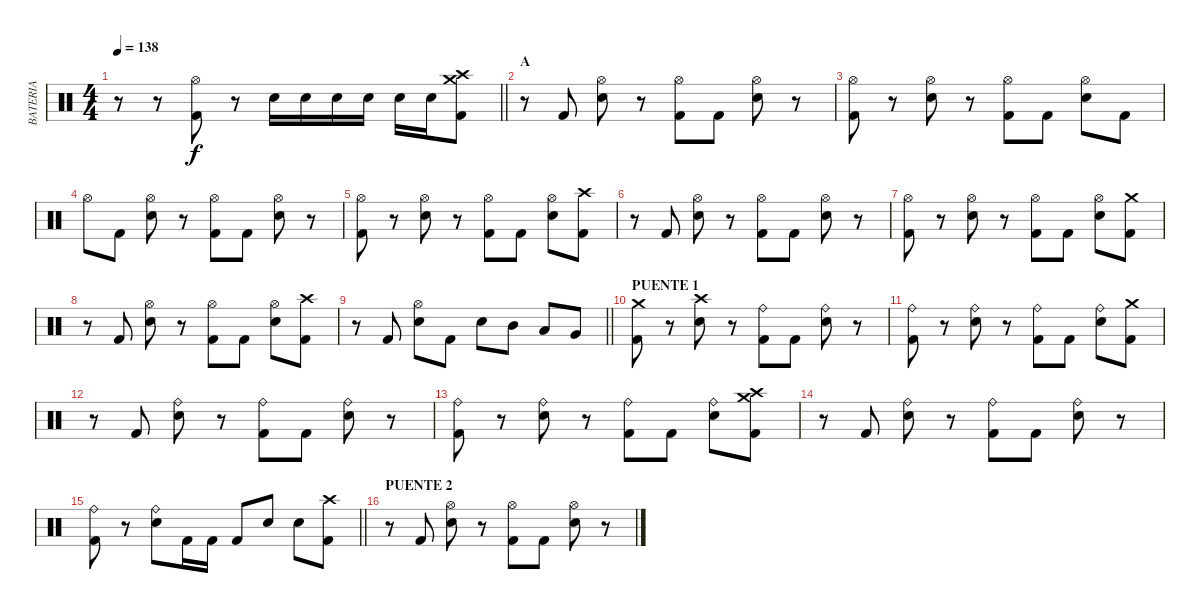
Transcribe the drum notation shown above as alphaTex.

\track ("BATERIA" "BATERIA") {instrument percussion}
\staff {score}
\articulation defaults
\ts (4 4)
\tempo 138
\clef neutral
\barLineRight lightlight
\ks c
r.8{dy f} r.8 ("Kick (hit) 2" "Hi-Hat (open)").8 r.8 "Electric Snare (hit)".16 "Electric Snare (hit)".16 "Electric Snare (hit)".16 "Electric Snare (hit)".16 "Electric Snare (hit)".16 "Electric Snare (hit)".16 ("Kick (hit) 2" "Crash medium (hit)" "Crash high (hit)").8 |
\section ("" "A")
r.8 "Kick (hit) 2".8 ("Electric Snare (hit)" "Hi-Hat (open)").8 r.8 ("Kick (hit) 2" "Hi-Hat (open)").8 "Kick (hit) 2".8 ("Electric Snare (hit)" "Hi-Hat (open)").8 r.8 |
("Kick (hit) 2" "Hi-Hat (open)").8 r.8 ("Electric Snare (hit)" "Hi-Hat (open)").8 r.8 ("Kick (hit) 2" "Hi-Hat (open)").8 "Kick (hit) 2".8 ("Electric Snare (hit)" "Hi-Hat (open)").8 "Kick (hit) 2".8 |
"Hi-Hat (open)".8 "Kick (hit) 2".8 ("Electric Snare (hit)" "Hi-Hat (open)").8 r.8 ("Kick (hit) 2" "Hi-Hat (open)").8 "Kick (hit) 2".8 ("Electric Snare (hit)" "Hi-Hat (open)").8 r.8 |
("Kick (hit) 2" "Hi-Hat (open)").8 r.8 ("Electric Snare (hit)" "Hi-Hat (open)").8 r.8 ("Kick (hit) 2" "Hi-Hat (open)").8 "Kick (hit) 2".8 ("Electric Snare (hit)" "Hi-Hat (open)").8 ("Kick (hit) 2" "Crash high (hit)").8 |
r.8 "Kick (hit) 2".8 ("Electric Snare (hit)" "Hi-Hat (open)").8 r.8 ("Kick (hit) 2" "Hi-Hat (open)").8 "Kick (hit) 2".8 ("Electric Snare (hit)" "Hi-Hat (open)").8 r.8 |
("Kick (hit) 2" "Hi-Hat (open)").8 r.8 ("Electric Snare (hit)" "Hi-Hat (open)").8 r.8 ("Kick (hit) 2" "Hi-Hat (open)").8 "Kick (hit) 2".8 ("Electric Snare (hit)" "Hi-Hat (open)").8 ("Kick (hit) 2" "Crash medium (hit)").8 |
r.8 "Kick (hit) 2".8 ("Electric Snare (hit)" "Hi-Hat (open)").8 r.8 ("Kick (hit) 2" "Hi-Hat (open)").8 "Kick (hit) 2".8 ("Electric Snare (hit)" "Hi-Hat (open)").8 ("Kick (hit) 2" "Crash high (hit)").8 |
\barLineRight lightlight
r.8 "Kick (hit) 2".8 ("Electric Snare (hit)" "Hi-Hat (open)").8 "Kick (hit) 2".8 "Electric Snare (hit)".8 "Mid Tom (hit)".8 "Low Tom (hit)".8 "Very Low Tom (hit)".8 |
\section ("" "PUENTE 1")
("Kick (hit) 2" "Crash medium (hit)").8 r.8 ("Electric Snare (hit)" "Crash high (hit)").8 r.8 ("Kick (hit) 2" "Ride (bell)").8 "Kick (hit) 2".8 ("Electric Snare (hit)" "Ride (bell)").8 r.8 |
("Kick (hit) 2" "Ride (bell)").8 r.8 ("Electric Snare (hit)" "Ride (bell)").8 r.8 ("Kick (hit) 2" "Ride (bell)").8 "Kick (hit) 2".8 ("Electric Snare (hit)" "Ride (bell)").8 ("Kick (hit) 2" "Crash medium (hit)").8 |
r.8 "Kick (hit) 2".8 ("Electric Snare (hit)" "Ride (bell)").8 r.8 ("Kick (hit) 2" "Ride (bell)").8 "Kick (hit) 2".8 ("Electric Snare (hit)" "Ride (bell)").8 r.8 |
("Kick (hit) 2" "Ride (bell)").8 r.8 ("Electric Snare (hit)" "Ride (bell)").8 r.8 ("Kick (hit) 2" "Ride (bell)").8 "Kick (hit) 2".8 ("Electric Snare (hit)" "Ride (bell)").8 ("Kick (hit) 2" "Crash high (hit)" "Crash medium (hit)").8 |
r.8 "Kick (hit) 2".8 ("Electric Snare (hit)" "Ride (bell)").8 r.8 ("Kick (hit) 2" "Ride (bell)").8 "Kick (hit) 2".8 ("Electric Snare (hit)" "Ride (bell)").8 r.8 |
\barLineRight lightlight
("Kick (hit) 2" "Ride (bell)").8 r.8 ("Electric Snare (hit)" "Ride (bell)").8 "Kick (hit) 2".16 "Kick (hit) 2".16 "Kick (hit) 2".8 "Electric Snare (hit)".8 "Electric Snare (hit)".8 ("Kick (hit) 2" "Crash high (hit)").8 |
\section ("" "PUENTE 2")
r.8 "Kick (hit) 2".8 ("Electric Snare (hit)" "Hi-Hat (open)").8 r.8 ("Kick (hit) 2" "Hi-Hat (open)").8 "Kick (hit) 2".8 ("Electric Snare (hit)" "Hi-Hat (open)").8 r.8
